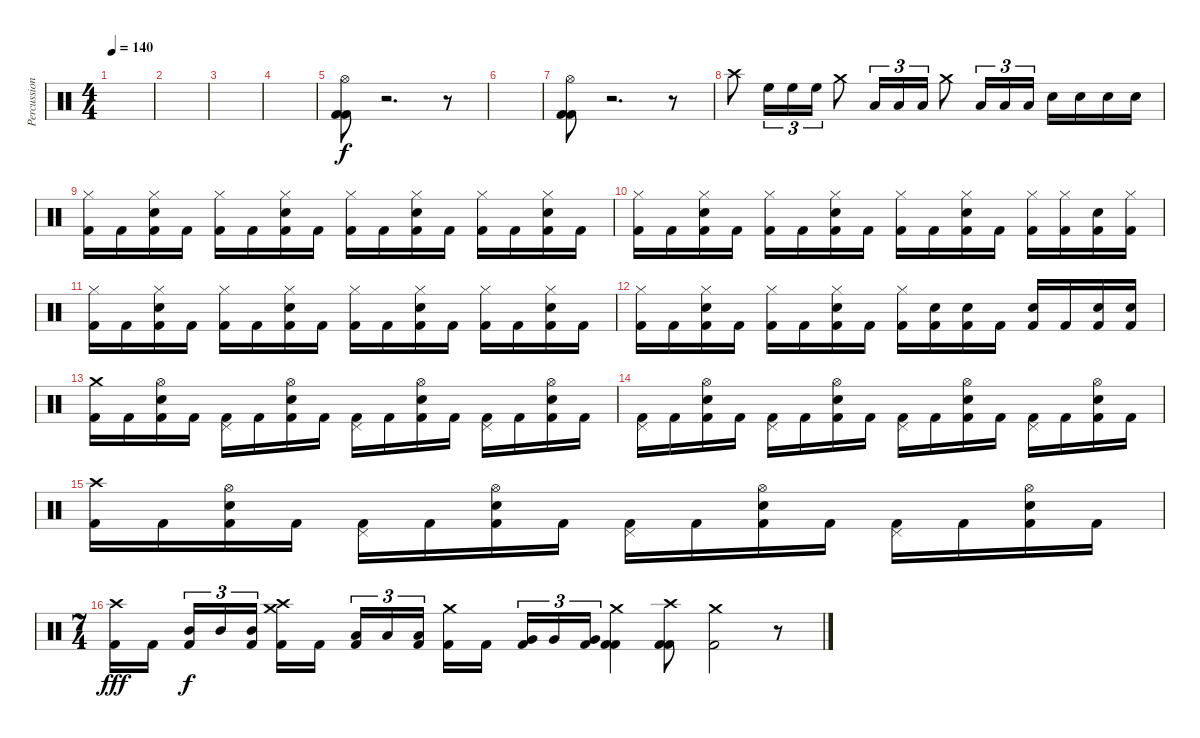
\track ("Percussion" "Percussion") {instrument percussion}
\staff {score}
\articulation defaults
\ts (4 4)
\tempo 140
\clef neutral
\ks c
|
|
|
|
("Hi-Hat (open)" "Kick (hit) 2" "Kick (hit) 2").8 r.2{d} r.8 |
|
("Hi-Hat (open)" "Kick (hit) 2" "Kick (hit) 2").8 r.2{d} r.8 |
"Crash high (hit)".8 "High Floor Tom (hit)".16{tu (3 2)} "High Floor Tom (hit)".16{tu (3 2)} "High Floor Tom (hit)".16{tu (3 2)} "Crash medium (hit)".8 "Low Tom (hit)".16{tu (3 2)} "Low Tom (hit)".16{tu (3 2)} "Low Tom (hit)".16{tu (3 2)} "Crash medium (hit)".8 "Low Floor Tom (hit)".16{tu (3 2)} "Low Floor Tom (hit)".16{tu (3 2)} "Low Floor Tom (hit)".16{tu (3 2)} "Electric Snare (hit)".16 "Electric Snare (hit)".16 "Electric Snare (hit)".16 "Electric Snare (hit)".16 |
("Hi-Hat (closed)" "Kick (hit) 2").16 "Kick (hit) 2".16 ("Hi-Hat (closed)" "Electric Snare (hit)" "Kick (hit) 2").16 "Kick (hit) 2".16 ("Hi-Hat (closed)" "Kick (hit) 2").16 "Kick (hit) 2".16 ("Hi-Hat (closed)" "Electric Snare (hit)" "Kick (hit) 2").16 "Kick (hit) 2".16 ("Hi-Hat (closed)" "Kick (hit) 2").16 "Kick (hit) 2".16 ("Hi-Hat (closed)" "Electric Snare (hit)" "Kick (hit) 2").16 "Kick (hit) 2".16 ("Hi-Hat (closed)" "Kick (hit) 2").16 "Kick (hit) 2".16 ("Hi-Hat (closed)" "Electric Snare (hit)" "Kick (hit) 2").16 "Kick (hit) 2".16 |
("Hi-Hat (closed)" "Kick (hit) 2").16 "Kick (hit) 2".16 ("Hi-Hat (closed)" "Electric Snare (hit)" "Kick (hit) 2").16 "Kick (hit) 2".16 ("Hi-Hat (closed)" "Kick (hit) 2").16 "Kick (hit) 2".16 ("Hi-Hat (closed)" "Electric Snare (hit)" "Kick (hit) 2").16 "Kick (hit) 2".16 ("Hi-Hat (closed)" "Kick (hit) 2").16 "Kick (hit) 2".16 ("Hi-Hat (closed)" "Electric Snare (hit)" "Kick (hit) 2").16 "Kick (hit) 2".16 ("Hi-Hat (closed)" "Kick (hit) 2").16 ("Hi-Hat (closed)" "Kick (hit) 2").16 ("Electric Snare (hit)" "Kick (hit) 2").16 ("Hi-Hat (closed)" "Kick (hit) 2").16 |
("Hi-Hat (closed)" "Kick (hit) 2").16 "Kick (hit) 2".16 ("Hi-Hat (closed)" "Electric Snare (hit)" "Kick (hit) 2").16 "Kick (hit) 2".16 ("Hi-Hat (closed)" "Kick (hit) 2").16 "Kick (hit) 2".16 ("Hi-Hat (closed)" "Electric Snare (hit)" "Kick (hit) 2").16 "Kick (hit) 2".16 ("Hi-Hat (closed)" "Kick (hit) 2").16 "Kick (hit) 2".16 ("Hi-Hat (closed)" "Electric Snare (hit)" "Kick (hit) 2").16 "Kick (hit) 2".16 ("Hi-Hat (closed)" "Kick (hit) 2").16 "Kick (hit) 2".16 ("Hi-Hat (closed)" "Electric Snare (hit)" "Kick (hit) 2").16 "Kick (hit) 2".16 |
("Hi-Hat (closed)" "Kick (hit) 2").16 "Kick (hit) 2".16 ("Hi-Hat (closed)" "Electric Snare (hit)" "Kick (hit) 2").16 "Kick (hit) 2".16 ("Hi-Hat (closed)" "Kick (hit) 2").16 "Kick (hit) 2".16 ("Hi-Hat (closed)" "Electric Snare (hit)" "Kick (hit) 2").16 "Kick (hit) 2".16 ("Hi-Hat (closed)" "Kick (hit) 2").16 ("Electric Snare (hit)" "Kick (hit) 2").16 ("Electric Snare (hit)" "Kick (hit) 2").16 "Kick (hit) 2".16 ("Electric Snare (hit)" "Kick (hit) 2").16 "Kick (hit) 2".16 ("Electric Snare (hit)" "Kick (hit) 2").16 ("Electric Snare (hit)" "Kick (hit) 2").16 |
("Crash medium (hit)" "Kick (hit) 2").16 "Kick (hit) 2".16 ("Hi-Hat (open)" "Electric Snare (hit)" "Kick (hit) 2").16 "Kick (hit) 2".16 ("Pedal Hi-Hat (hit)" "Kick (hit) 2").16 "Kick (hit) 2".16 ("Hi-Hat (open)" "Electric Snare (hit)" "Kick (hit) 2").16 "Kick (hit) 2".16 ("Pedal Hi-Hat (hit)" "Kick (hit) 2").16 "Kick (hit) 2".16 ("Hi-Hat (open)" "Electric Snare (hit)" "Kick (hit) 2").16 "Kick (hit) 2".16 ("Pedal Hi-Hat (hit)" "Kick (hit) 2").16 "Kick (hit) 2".16 ("Hi-Hat (open)" "Electric Snare (hit)" "Kick (hit) 2").16 "Kick (hit) 2".16 |
("Pedal Hi-Hat (hit)" "Kick (hit) 2").16 "Kick (hit) 2".16 ("Hi-Hat (open)" "Electric Snare (hit)" "Kick (hit) 2").16 "Kick (hit) 2".16 ("Pedal Hi-Hat (hit)" "Kick (hit) 2").16 "Kick (hit) 2".16 ("Hi-Hat (open)" "Electric Snare (hit)" "Kick (hit) 2").16 "Kick (hit) 2".16 ("Pedal Hi-Hat (hit)" "Kick (hit) 2").16 "Kick (hit) 2".16 ("Hi-Hat (open)" "Electric Snare (hit)" "Kick (hit) 2").16 "Kick (hit) 2".16 ("Pedal Hi-Hat (hit)" "Kick (hit) 2").16 "Kick (hit) 2".16 ("Hi-Hat (open)" "Electric Snare (hit)" "Kick (hit) 2").16 "Kick (hit) 2".16 |
("Crash high (hit)" "Kick (hit) 2").16 "Kick (hit) 2".16 ("Hi-Hat (open)" "Electric Snare (hit)" "Kick (hit) 2").16 "Kick (hit) 2".16 ("Pedal Hi-Hat (hit)" "Kick (hit) 2").16 "Kick (hit) 2".16 ("Hi-Hat (open)" "Electric Snare (hit)" "Kick (hit) 2").16 "Kick (hit) 2".16 ("Pedal Hi-Hat (hit)" "Kick (hit) 2").16 "Kick (hit) 2".16 ("Hi-Hat (open)" "Electric Snare (hit)" "Kick (hit) 2").16 "Kick (hit) 2".16 ("Pedal Hi-Hat (hit)" "Kick (hit) 2").16 "Kick (hit) 2".16 ("Hi-Hat (open)" "Electric Snare (hit)" "Kick (hit) 2").16 "Kick (hit) 2".16 |
\ts (7 4)
("Crash high (hit)" "Kick (hit) 2").16{dy fff} "Kick (hit) 2".16 ("Mid Tom (hit)" "Kick (hit) 2").16{tu (3 2) dy f} "Mid Tom (hit)".16{tu (3 2)} ("Mid Tom (hit)" "Kick (hit) 2").16{tu (3 2)} ("Crash high (hit)" "Crash medium (hit)" "Kick (hit) 2").16 "Kick (hit) 2".16 ("Low Tom (hit)" "Kick (hit) 2").16{tu (3 2)} "Low Tom (hit)".16{tu (3 2)} ("Low Tom (hit)" "Kick (hit) 2").16{tu (3 2)} ("Crash medium (hit)" "Kick (hit) 2").16 "Kick (hit) 2".16 ("Very Low Tom (hit)" "Kick (hit) 2").16{tu (3 2)} "Very Low Tom (hit)".16{tu (3 2)} ("Very Low Tom (hit)" "Kick (hit) 2").16{tu (3 2)} ("Crash medium (hit)" "Kick (hit) 2" "Kick (hit) 2").4 ("Crash high (hit)" "Kick (hit) 2" "Kick (hit) 2").8 ("Crash medium (hit)" "Kick (hit) 2").2 r.8
